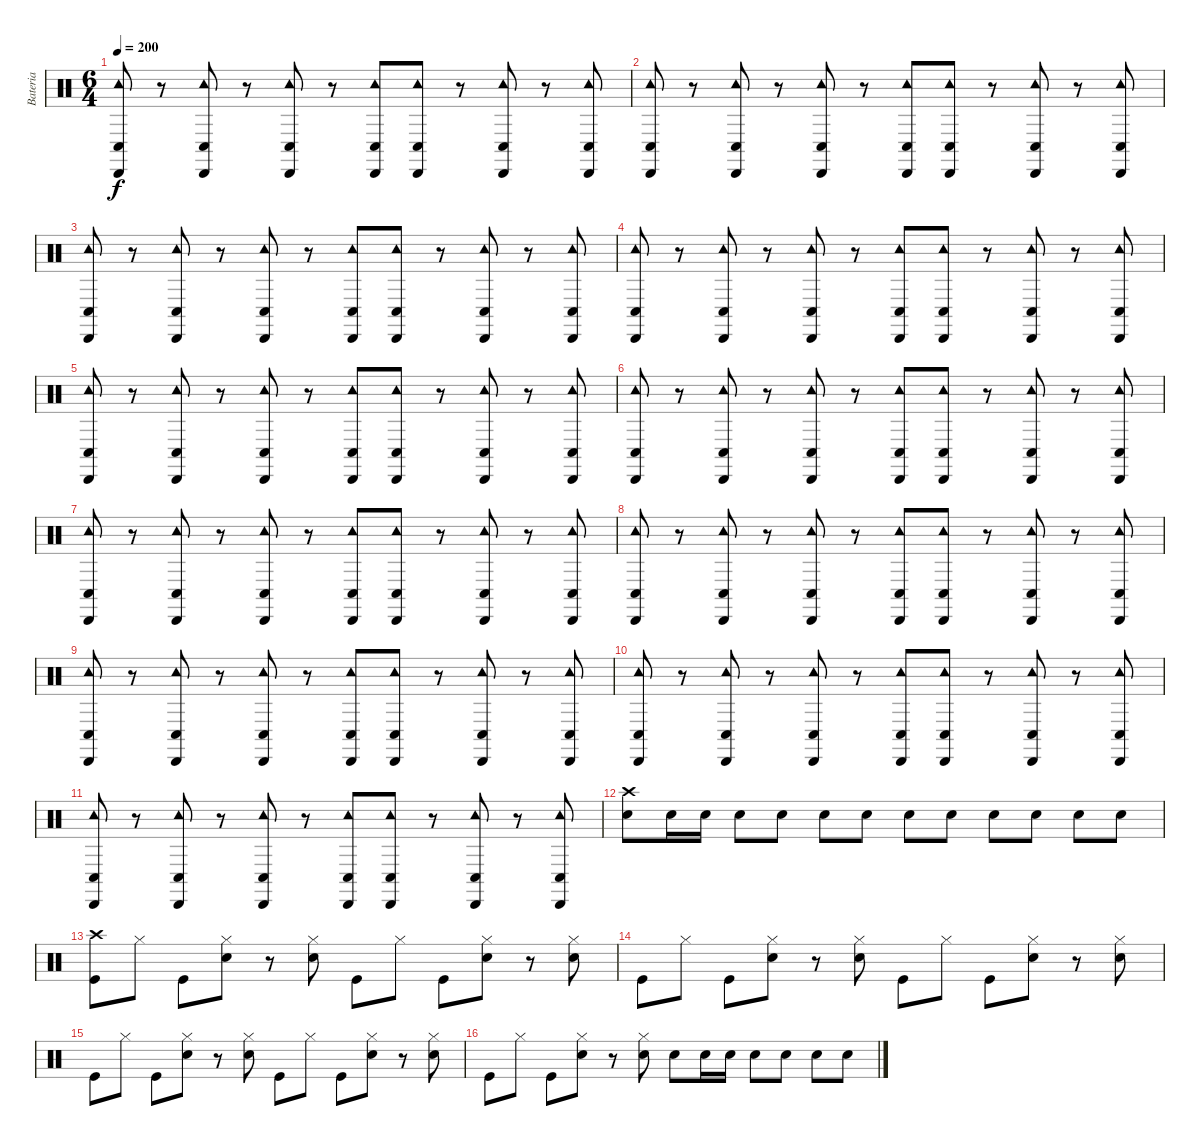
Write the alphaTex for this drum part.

\track ("Bateria" "Bateria") {instrument percussion}
\staff {score}
\articulation defaults
\ts (6 4)
\tempo 200
\clef neutral
\ks c
("Conga low (hit)" "Cabasa (hit)" "Tambourine (hit)").8{dy f} r.8 ("Conga low (hit)" "Cabasa (hit)" "Tambourine (hit)").8 r.8 ("Conga low (hit)" "Cabasa (hit)" "Tambourine (hit)").8 r.8 ("Conga low (hit)" "Cabasa (hit)" "Tambourine (hit)").8 ("Conga low (hit)" "Cabasa (hit)" "Tambourine (hit)").8 r.8 ("Conga low (hit)" "Cabasa (hit)" "Tambourine (hit)").8 r.8 ("Conga low (hit)" "Cabasa (hit)" "Tambourine (hit)").8 |
("Conga low (hit)" "Cabasa (hit)" "Tambourine (hit)").8 r.8 ("Conga low (hit)" "Cabasa (hit)" "Tambourine (hit)").8 r.8 ("Conga low (hit)" "Cabasa (hit)" "Tambourine (hit)").8 r.8 ("Conga low (hit)" "Cabasa (hit)" "Tambourine (hit)").8 ("Conga low (hit)" "Cabasa (hit)" "Tambourine (hit)").8 r.8 ("Conga low (hit)" "Cabasa (hit)" "Tambourine (hit)").8 r.8 ("Conga low (hit)" "Cabasa (hit)" "Tambourine (hit)").8 |
("Conga low (hit)" "Cabasa (hit)" "Tambourine (hit)").8 r.8 ("Conga low (hit)" "Cabasa (hit)" "Tambourine (hit)").8 r.8 ("Conga low (hit)" "Cabasa (hit)" "Tambourine (hit)").8 r.8 ("Conga low (hit)" "Cabasa (hit)" "Tambourine (hit)").8 ("Conga low (hit)" "Cabasa (hit)" "Tambourine (hit)").8 r.8 ("Conga low (hit)" "Cabasa (hit)" "Tambourine (hit)").8 r.8 ("Conga low (hit)" "Cabasa (hit)" "Tambourine (hit)").8 |
("Conga low (hit)" "Cabasa (hit)" "Tambourine (hit)").8 r.8 ("Conga low (hit)" "Cabasa (hit)" "Tambourine (hit)").8 r.8 ("Conga low (hit)" "Cabasa (hit)" "Tambourine (hit)").8 r.8 ("Conga low (hit)" "Cabasa (hit)" "Tambourine (hit)").8 ("Conga low (hit)" "Cabasa (hit)" "Tambourine (hit)").8 r.8 ("Conga low (hit)" "Cabasa (hit)" "Tambourine (hit)").8 r.8 ("Conga low (hit)" "Cabasa (hit)" "Tambourine (hit)").8 |
("Conga low (hit)" "Cabasa (hit)" "Tambourine (hit)").8 r.8 ("Conga low (hit)" "Cabasa (hit)" "Tambourine (hit)").8 r.8 ("Conga low (hit)" "Cabasa (hit)" "Tambourine (hit)").8 r.8 ("Conga low (hit)" "Cabasa (hit)" "Tambourine (hit)").8 ("Conga low (hit)" "Cabasa (hit)" "Tambourine (hit)").8 r.8 ("Conga low (hit)" "Cabasa (hit)" "Tambourine (hit)").8 r.8 ("Conga low (hit)" "Cabasa (hit)" "Tambourine (hit)").8 |
("Conga low (hit)" "Cabasa (hit)" "Tambourine (hit)").8 r.8 ("Conga low (hit)" "Cabasa (hit)" "Tambourine (hit)").8 r.8 ("Conga low (hit)" "Cabasa (hit)" "Tambourine (hit)").8 r.8 ("Conga low (hit)" "Cabasa (hit)" "Tambourine (hit)").8 ("Conga low (hit)" "Cabasa (hit)" "Tambourine (hit)").8 r.8 ("Conga low (hit)" "Cabasa (hit)" "Tambourine (hit)").8 r.8 ("Conga low (hit)" "Cabasa (hit)" "Tambourine (hit)").8 |
("Conga low (hit)" "Cabasa (hit)" "Tambourine (hit)").8 r.8 ("Conga low (hit)" "Cabasa (hit)" "Tambourine (hit)").8 r.8 ("Conga low (hit)" "Cabasa (hit)" "Tambourine (hit)").8 r.8 ("Conga low (hit)" "Cabasa (hit)" "Tambourine (hit)").8 ("Conga low (hit)" "Cabasa (hit)" "Tambourine (hit)").8 r.8 ("Conga low (hit)" "Cabasa (hit)" "Tambourine (hit)").8 r.8 ("Conga low (hit)" "Cabasa (hit)" "Tambourine (hit)").8 |
("Conga low (hit)" "Cabasa (hit)" "Tambourine (hit)").8 r.8 ("Conga low (hit)" "Cabasa (hit)" "Tambourine (hit)").8 r.8 ("Conga low (hit)" "Cabasa (hit)" "Tambourine (hit)").8 r.8 ("Conga low (hit)" "Cabasa (hit)" "Tambourine (hit)").8 ("Conga low (hit)" "Cabasa (hit)" "Tambourine (hit)").8 r.8 ("Conga low (hit)" "Cabasa (hit)" "Tambourine (hit)").8 r.8 ("Conga low (hit)" "Cabasa (hit)" "Tambourine (hit)").8 |
("Conga low (hit)" "Cabasa (hit)" "Tambourine (hit)").8 r.8 ("Conga low (hit)" "Cabasa (hit)" "Tambourine (hit)").8 r.8 ("Conga low (hit)" "Cabasa (hit)" "Tambourine (hit)").8 r.8 ("Conga low (hit)" "Cabasa (hit)" "Tambourine (hit)").8 ("Conga low (hit)" "Cabasa (hit)" "Tambourine (hit)").8 r.8 ("Conga low (hit)" "Cabasa (hit)" "Tambourine (hit)").8 r.8 ("Conga low (hit)" "Cabasa (hit)" "Tambourine (hit)").8 |
("Conga low (hit)" "Cabasa (hit)" "Tambourine (hit)").8 r.8 ("Conga low (hit)" "Cabasa (hit)" "Tambourine (hit)").8 r.8 ("Conga low (hit)" "Cabasa (hit)" "Tambourine (hit)").8 r.8 ("Conga low (hit)" "Cabasa (hit)" "Tambourine (hit)").8 ("Conga low (hit)" "Cabasa (hit)" "Tambourine (hit)").8 r.8 ("Conga low (hit)" "Cabasa (hit)" "Tambourine (hit)").8 r.8 ("Conga low (hit)" "Cabasa (hit)" "Tambourine (hit)").8 |
("Conga low (hit)" "Cabasa (hit)" "Tambourine (hit)").8 r.8 ("Conga low (hit)" "Cabasa (hit)" "Tambourine (hit)").8 r.8 ("Conga low (hit)" "Cabasa (hit)" "Tambourine (hit)").8 r.8 ("Conga low (hit)" "Cabasa (hit)" "Tambourine (hit)").8 ("Conga low (hit)" "Cabasa (hit)" "Tambourine (hit)").8 r.8 ("Conga low (hit)" "Cabasa (hit)" "Tambourine (hit)").8 r.8 ("Conga low (hit)" "Cabasa (hit)" "Tambourine (hit)").8 |
("Electric Snare (hit)" "Crash high (hit)").8 "Electric Snare (hit)".16 "Electric Snare (hit)".16 "Electric Snare (hit)".8 "Electric Snare (hit)".8 "Electric Snare (hit)".8 "Electric Snare (hit)".8 "Electric Snare (hit)".8 "Electric Snare (hit)".8 "Electric Snare (hit)".8 "Electric Snare (hit)".8 "Electric Snare (hit)".8 "Electric Snare (hit)".8 |
("Kick (hit)" "Crash high (hit)").8 "Hi-Hat (closed)".8 "Kick (hit)".8 ("Electric Snare (hit)" "Hi-Hat (closed)").8 r.8 ("Electric Snare (hit)" "Hi-Hat (closed)").8 "Kick (hit)".8 "Hi-Hat (closed)".8 "Kick (hit)".8 ("Electric Snare (hit)" "Hi-Hat (closed)").8 r.8 ("Electric Snare (hit)" "Hi-Hat (closed)").8 |
"Kick (hit)".8 "Hi-Hat (closed)".8 "Kick (hit)".8 ("Electric Snare (hit)" "Hi-Hat (closed)").8 r.8 ("Electric Snare (hit)" "Hi-Hat (closed)").8 "Kick (hit)".8 "Hi-Hat (closed)".8 "Kick (hit)".8 ("Electric Snare (hit)" "Hi-Hat (closed)").8 r.8 ("Electric Snare (hit)" "Hi-Hat (closed)").8 |
"Kick (hit)".8 "Hi-Hat (closed)".8 "Kick (hit)".8 ("Electric Snare (hit)" "Hi-Hat (closed)").8 r.8 ("Electric Snare (hit)" "Hi-Hat (closed)").8 "Kick (hit)".8 "Hi-Hat (closed)".8 "Kick (hit)".8 ("Electric Snare (hit)" "Hi-Hat (closed)").8 r.8 ("Electric Snare (hit)" "Hi-Hat (closed)").8 |
"Kick (hit)".8 "Hi-Hat (closed)".8 "Kick (hit)".8 ("Electric Snare (hit)" "Hi-Hat (closed)").8 r.8 ("Electric Snare (hit)" "Hi-Hat (closed)").8 "Electric Snare (hit)".8 "Electric Snare (hit)".16 "Electric Snare (hit)".16 "Electric Snare (hit)".8 "Electric Snare (hit)".8 "Electric Snare (hit)".8 "Electric Snare (hit)".8
